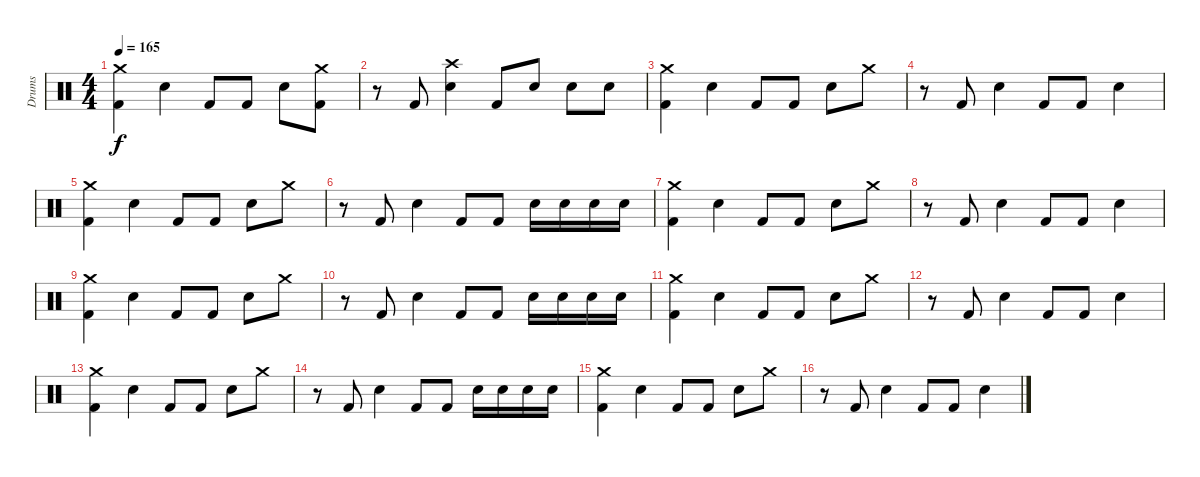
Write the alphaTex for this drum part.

\track ("Drums" "Drums") {instrument percussion}
\staff {score}
\articulation defaults
\ts (4 4)
\tempo 165
\clef neutral
\ks c
("Crash medium (hit)" "Kick (hit) 2").4{dy f} "Snare (hit) 2".4 "Kick (hit) 2".8 "Kick (hit) 2".8 "Snare (hit) 2".8 ("Crash medium (hit)" "Kick (hit) 2").8 |
r.8 "Kick (hit) 2".8 ("Crash high (hit)" "Snare (hit) 2").4 "Kick (hit) 2".8 "Snare (hit) 2".8 "Snare (hit) 2".8 "Snare (hit) 2".8 |
("Crash medium (hit)" "Kick (hit) 2").4 "Snare (hit) 2".4 "Kick (hit) 2".8 "Kick (hit) 2".8 "Snare (hit) 2".8 "Crash medium (hit)".8 |
r.8 "Kick (hit) 2".8 "Snare (hit) 2".4 "Kick (hit) 2".8 "Kick (hit) 2".8 "Snare (hit) 2".4 |
("Crash medium (hit)" "Kick (hit) 2").4 "Snare (hit) 2".4 "Kick (hit) 2".8 "Kick (hit) 2".8 "Snare (hit) 2".8 "Crash medium (hit)".8 |
r.8 "Kick (hit) 2".8 "Snare (hit) 2".4 "Kick (hit) 2".8 "Kick (hit) 2".8 "Snare (hit) 2".16 "Snare (hit) 2".16 "Snare (hit) 2".16 "Snare (hit) 2".16 |
("Crash medium (hit)" "Kick (hit) 2").4 "Snare (hit) 2".4 "Kick (hit) 2".8 "Kick (hit) 2".8 "Snare (hit) 2".8 "Crash medium (hit)".8 |
r.8 "Kick (hit) 2".8 "Snare (hit) 2".4 "Kick (hit) 2".8 "Kick (hit) 2".8 "Snare (hit) 2".4 |
("Crash medium (hit)" "Kick (hit) 2").4 "Snare (hit) 2".4 "Kick (hit) 2".8 "Kick (hit) 2".8 "Snare (hit) 2".8 "Crash medium (hit)".8 |
r.8 "Kick (hit) 2".8 "Snare (hit) 2".4 "Kick (hit) 2".8 "Kick (hit) 2".8 "Snare (hit) 2".16 "Snare (hit) 2".16 "Snare (hit) 2".16 "Snare (hit) 2".16 |
("Crash medium (hit)" "Kick (hit) 2").4 "Snare (hit) 2".4 "Kick (hit) 2".8 "Kick (hit) 2".8 "Snare (hit) 2".8 "Crash medium (hit)".8 |
r.8 "Kick (hit) 2".8 "Snare (hit) 2".4 "Kick (hit) 2".8 "Kick (hit) 2".8 "Snare (hit) 2".4 |
("Crash medium (hit)" "Kick (hit) 2").4 "Snare (hit) 2".4 "Kick (hit) 2".8 "Kick (hit) 2".8 "Snare (hit) 2".8 "Crash medium (hit)".8 |
r.8 "Kick (hit) 2".8 "Snare (hit) 2".4 "Kick (hit) 2".8 "Kick (hit) 2".8 "Snare (hit) 2".16 "Snare (hit) 2".16 "Snare (hit) 2".16 "Snare (hit) 2".16 |
("Crash medium (hit)" "Kick (hit) 2").4 "Snare (hit) 2".4 "Kick (hit) 2".8 "Kick (hit) 2".8 "Snare (hit) 2".8 "Crash medium (hit)".8 |
r.8 "Kick (hit) 2".8 "Snare (hit) 2".4 "Kick (hit) 2".8 "Kick (hit) 2".8 "Snare (hit) 2".4
